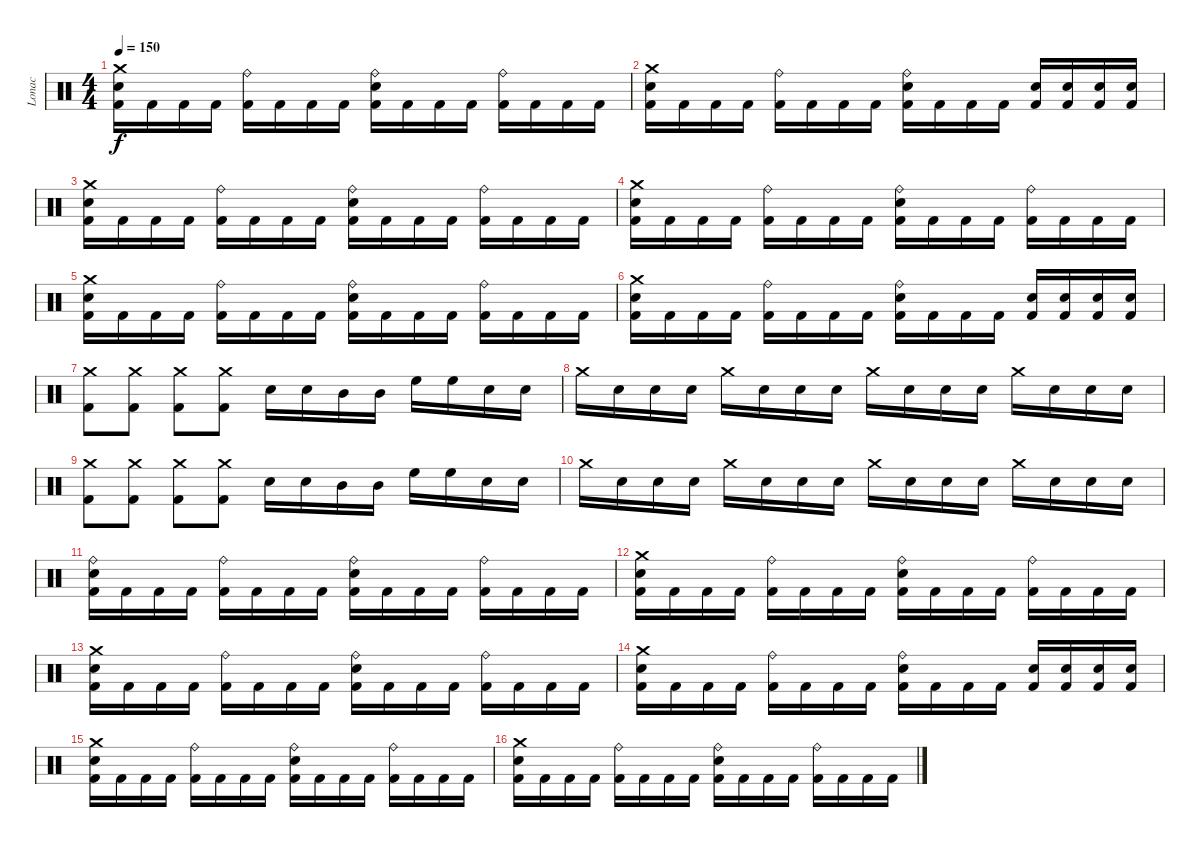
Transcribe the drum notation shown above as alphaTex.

\track ("Lonac" "Lonac") {instrument percussion}
\staff {score}
\articulation defaults
\ts (4 4)
\tempo 150
\clef neutral
\ks c
("Kick (hit) 2" "Snare (hit) 2" "Crash medium (hit)").16{dy f} "Kick (hit) 2".16 "Kick (hit) 2".16 "Kick (hit) 2".16 ("Kick (hit) 2" "Ride (bell)").16 "Kick (hit) 2".16 "Kick (hit) 2".16 "Kick (hit) 2".16 ("Kick (hit) 2" "Snare (hit) 2" "Ride (bell)").16 "Kick (hit) 2".16 "Kick (hit) 2".16 "Kick (hit) 2".16 ("Kick (hit) 2" "Ride (bell)").16 "Kick (hit) 2".16 "Kick (hit) 2".16 "Kick (hit) 2".16 |
("Kick (hit) 2" "Snare (hit) 2" "Crash medium (hit)").16 "Kick (hit) 2".16 "Kick (hit) 2".16 "Kick (hit) 2".16 ("Kick (hit) 2" "Ride (bell)").16 "Kick (hit) 2".16 "Kick (hit) 2".16 "Kick (hit) 2".16 ("Kick (hit) 2" "Snare (hit) 2" "Ride (bell)").16 "Kick (hit) 2".16 "Kick (hit) 2".16 "Kick (hit) 2".16 ("Kick (hit) 2" "Snare (hit) 2").16 ("Kick (hit) 2" "Snare (hit) 2").16 ("Kick (hit) 2" "Snare (hit) 2").16 ("Kick (hit) 2" "Snare (hit) 2").16 |
("Kick (hit) 2" "Snare (hit) 2" "Crash medium (hit)").16 "Kick (hit) 2".16 "Kick (hit) 2".16 "Kick (hit) 2".16 ("Kick (hit) 2" "Ride (bell)").16 "Kick (hit) 2".16 "Kick (hit) 2".16 "Kick (hit) 2".16 ("Kick (hit) 2" "Snare (hit) 2" "Ride (bell)").16 "Kick (hit) 2".16 "Kick (hit) 2".16 "Kick (hit) 2".16 ("Kick (hit) 2" "Ride (bell)").16 "Kick (hit) 2".16 "Kick (hit) 2".16 "Kick (hit) 2".16 |
("Kick (hit) 2" "Snare (hit) 2" "Crash medium (hit)").16 "Kick (hit) 2".16 "Kick (hit) 2".16 "Kick (hit) 2".16 ("Kick (hit) 2" "Ride (bell)").16 "Kick (hit) 2".16 "Kick (hit) 2".16 "Kick (hit) 2".16 ("Kick (hit) 2" "Snare (hit) 2" "Ride (bell)").16 "Kick (hit) 2".16 "Kick (hit) 2".16 "Kick (hit) 2".16 ("Kick (hit) 2" "Ride (bell)").16 "Kick (hit) 2".16 "Kick (hit) 2".16 "Kick (hit) 2".16 |
("Kick (hit) 2" "Snare (hit) 2" "Crash medium (hit)").16 "Kick (hit) 2".16 "Kick (hit) 2".16 "Kick (hit) 2".16 ("Kick (hit) 2" "Ride (bell)").16 "Kick (hit) 2".16 "Kick (hit) 2".16 "Kick (hit) 2".16 ("Kick (hit) 2" "Snare (hit) 2" "Ride (bell)").16 "Kick (hit) 2".16 "Kick (hit) 2".16 "Kick (hit) 2".16 ("Kick (hit) 2" "Ride (bell)").16 "Kick (hit) 2".16 "Kick (hit) 2".16 "Kick (hit) 2".16 |
("Kick (hit) 2" "Snare (hit) 2" "Crash medium (hit)").16 "Kick (hit) 2".16 "Kick (hit) 2".16 "Kick (hit) 2".16 ("Kick (hit) 2" "Ride (bell)").16 "Kick (hit) 2".16 "Kick (hit) 2".16 "Kick (hit) 2".16 ("Kick (hit) 2" "Snare (hit) 2" "Ride (bell)").16 "Kick (hit) 2".16 "Kick (hit) 2".16 "Kick (hit) 2".16 ("Kick (hit) 2" "Snare (hit) 2").16 ("Kick (hit) 2" "Snare (hit) 2").16 ("Kick (hit) 2" "Snare (hit) 2").16 ("Kick (hit) 2" "Snare (hit) 2").16 |
("Kick (hit) 2" "Crash medium (hit)").8 ("Kick (hit) 2" "Crash medium (hit)").8 ("Kick (hit) 2" "Crash medium (hit)").8 ("Kick (hit) 2" "Crash medium (hit)").8 "Snare (hit) 2".16 "Snare (hit) 2".16 "Mid Tom (hit)".16 "Mid Tom (hit)".16 "High Floor Tom (hit)".16 "High Floor Tom (hit)".16 "Snare (hit) 2".16 "Snare (hit) 2".16 |
"Crash medium (hit)".16 "Snare (hit) 2".16 "Snare (hit) 2".16 "Snare (hit) 2".16 "Crash medium (hit)".16 "Snare (hit) 2".16 "Snare (hit) 2".16 "Snare (hit) 2".16 "Crash medium (hit)".16 "Snare (hit) 2".16 "Snare (hit) 2".16 "Snare (hit) 2".16 "Crash medium (hit)".16 "Snare (hit) 2".16 "Snare (hit) 2".16 "Snare (hit) 2".16 |
("Kick (hit) 2" "Crash medium (hit)").8 ("Kick (hit) 2" "Crash medium (hit)").8 ("Kick (hit) 2" "Crash medium (hit)").8 ("Kick (hit) 2" "Crash medium (hit)").8 "Snare (hit) 2".16 "Snare (hit) 2".16 "Mid Tom (hit)".16 "Mid Tom (hit)".16 "High Floor Tom (hit)".16 "High Floor Tom (hit)".16 "Snare (hit) 2".16 "Snare (hit) 2".16 |
"Crash medium (hit)".16 "Snare (hit) 2".16 "Snare (hit) 2".16 "Snare (hit) 2".16 "Crash medium (hit)".16 "Snare (hit) 2".16 "Snare (hit) 2".16 "Snare (hit) 2".16 "Crash medium (hit)".16 "Snare (hit) 2".16 "Snare (hit) 2".16 "Snare (hit) 2".16 "Crash medium (hit)".16 "Snare (hit) 2".16 "Snare (hit) 2".16 "Snare (hit) 2".16 |
("Kick (hit) 2" "Snare (hit) 2" "Ride (bell)").16 "Kick (hit) 2".16 "Kick (hit) 2".16 "Kick (hit) 2".16 ("Kick (hit) 2" "Ride (bell)").16 "Kick (hit) 2".16 "Kick (hit) 2".16 "Kick (hit) 2".16 ("Kick (hit) 2" "Snare (hit) 2" "Ride (bell)").16 "Kick (hit) 2".16 "Kick (hit) 2".16 "Kick (hit) 2".16 ("Kick (hit) 2" "Ride (bell)").16 "Kick (hit) 2".16 "Kick (hit) 2".16 "Kick (hit) 2".16 |
("Kick (hit) 2" "Snare (hit) 2" "Crash medium (hit)").16 "Kick (hit) 2".16 "Kick (hit) 2".16 "Kick (hit) 2".16 ("Kick (hit) 2" "Ride (bell)").16 "Kick (hit) 2".16 "Kick (hit) 2".16 "Kick (hit) 2".16 ("Kick (hit) 2" "Snare (hit) 2" "Ride (bell)").16 "Kick (hit) 2".16 "Kick (hit) 2".16 "Kick (hit) 2".16 ("Kick (hit) 2" "Ride (bell)").16 "Kick (hit) 2".16 "Kick (hit) 2".16 "Kick (hit) 2".16 |
("Kick (hit) 2" "Snare (hit) 2" "Crash medium (hit)").16 "Kick (hit) 2".16 "Kick (hit) 2".16 "Kick (hit) 2".16 ("Kick (hit) 2" "Ride (bell)").16 "Kick (hit) 2".16 "Kick (hit) 2".16 "Kick (hit) 2".16 ("Kick (hit) 2" "Snare (hit) 2" "Ride (bell)").16 "Kick (hit) 2".16 "Kick (hit) 2".16 "Kick (hit) 2".16 ("Kick (hit) 2" "Ride (bell)").16 "Kick (hit) 2".16 "Kick (hit) 2".16 "Kick (hit) 2".16 |
("Kick (hit) 2" "Snare (hit) 2" "Crash medium (hit)").16 "Kick (hit) 2".16 "Kick (hit) 2".16 "Kick (hit) 2".16 ("Kick (hit) 2" "Ride (bell)").16 "Kick (hit) 2".16 "Kick (hit) 2".16 "Kick (hit) 2".16 ("Kick (hit) 2" "Snare (hit) 2" "Ride (bell)").16 "Kick (hit) 2".16 "Kick (hit) 2".16 "Kick (hit) 2".16 ("Kick (hit) 2" "Snare (hit) 2").16 ("Kick (hit) 2" "Snare (hit) 2").16 ("Kick (hit) 2" "Snare (hit) 2").16 ("Kick (hit) 2" "Snare (hit) 2").16 |
("Kick (hit) 2" "Snare (hit) 2" "Crash medium (hit)").16 "Kick (hit) 2".16 "Kick (hit) 2".16 "Kick (hit) 2".16 ("Kick (hit) 2" "Ride (bell)").16 "Kick (hit) 2".16 "Kick (hit) 2".16 "Kick (hit) 2".16 ("Kick (hit) 2" "Snare (hit) 2" "Ride (bell)").16 "Kick (hit) 2".16 "Kick (hit) 2".16 "Kick (hit) 2".16 ("Kick (hit) 2" "Ride (bell)").16 "Kick (hit) 2".16 "Kick (hit) 2".16 "Kick (hit) 2".16 |
("Kick (hit) 2" "Snare (hit) 2" "Crash medium (hit)").16 "Kick (hit) 2".16 "Kick (hit) 2".16 "Kick (hit) 2".16 ("Kick (hit) 2" "Ride (bell)").16 "Kick (hit) 2".16 "Kick (hit) 2".16 "Kick (hit) 2".16 ("Kick (hit) 2" "Snare (hit) 2" "Ride (bell)").16 "Kick (hit) 2".16 "Kick (hit) 2".16 "Kick (hit) 2".16 ("Kick (hit) 2" "Ride (bell)").16 "Kick (hit) 2".16 "Kick (hit) 2".16 "Kick (hit) 2".16
